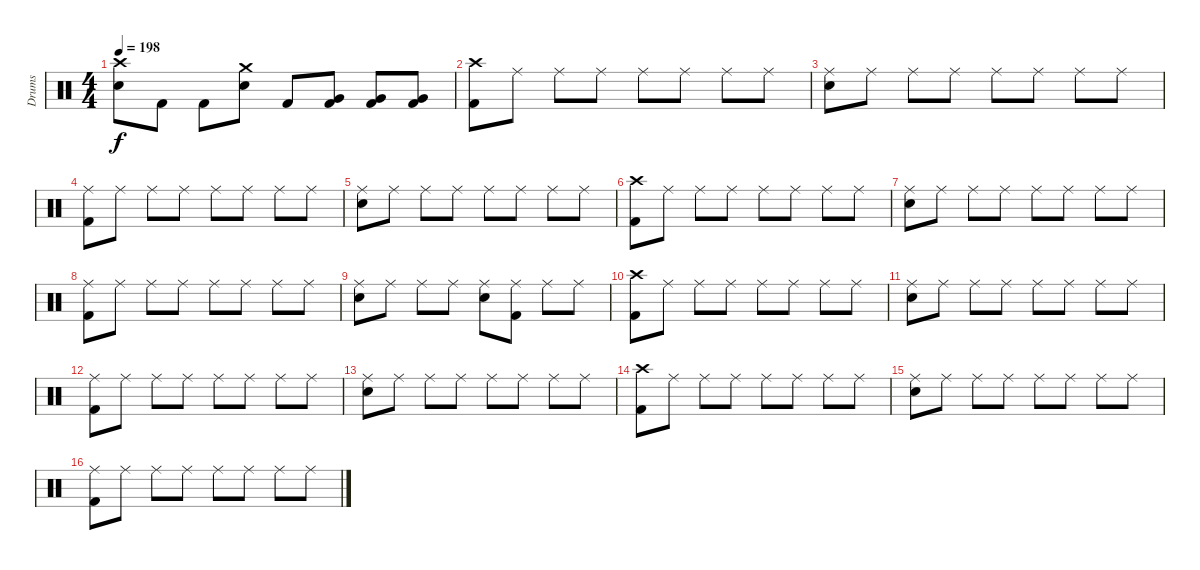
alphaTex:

\track ("Drums" "Drums") {instrument percussion}
\staff {score}
\articulation defaults
\ts (4 4)
\tempo 198
\clef neutral
\ks c
("Crash high (hit)" "Electric Snare (hit)").8{dy f} "Kick (hit) 2".8 "Kick (hit) 2".8 ("Crash medium (hit)" "Electric Snare (hit)").8 "Kick (hit) 2".8 ("Very Low Tom (hit)" "Kick (hit) 2").8 ("Very Low Tom (hit)" "Kick (hit) 2").8 ("Very Low Tom (hit)" "Kick (hit) 2").8 |
("Crash high (hit)" "Kick (hit) 2").8 "Ride (middle)".8 "Ride (middle)".8 "Ride (middle)".8 "Ride (middle)".8 "Ride (middle)".8 "Ride (middle)".8 "Ride (middle)".8 |
("Ride (middle)" "Electric Snare (hit)").8 "Ride (middle)".8 "Ride (middle)".8 "Ride (middle)".8 "Ride (middle)".8 "Ride (middle)".8 "Ride (middle)".8 "Ride (middle)".8 |
("Ride (middle)" "Kick (hit) 2").8 "Ride (middle)".8 "Ride (middle)".8 "Ride (middle)".8 "Ride (middle)".8 "Ride (middle)".8 "Ride (middle)".8 "Ride (middle)".8 |
("Ride (middle)" "Electric Snare (hit)").8 "Ride (middle)".8 "Ride (middle)".8 "Ride (middle)".8 "Ride (middle)".8 "Ride (middle)".8 "Ride (middle)".8 "Ride (middle)".8 |
("Crash high (hit)" "Kick (hit) 2").8 "Ride (middle)".8 "Ride (middle)".8 "Ride (middle)".8 "Ride (middle)".8 "Ride (middle)".8 "Ride (middle)".8 "Ride (middle)".8 |
("Ride (middle)" "Electric Snare (hit)").8 "Ride (middle)".8 "Ride (middle)".8 "Ride (middle)".8 "Ride (middle)".8 "Ride (middle)".8 "Ride (middle)".8 "Ride (middle)".8 |
("Ride (middle)" "Kick (hit) 2").8 "Ride (middle)".8 "Ride (middle)".8 "Ride (middle)".8 "Ride (middle)".8 "Ride (middle)".8 "Ride (middle)".8 "Ride (middle)".8 |
("Ride (middle)" "Electric Snare (hit)").8 "Ride (middle)".8 "Ride (middle)".8 "Ride (middle)".8 ("Ride (middle)" "Electric Snare (hit)").8 ("Ride (middle)" "Kick (hit) 2").8 "Ride (middle)".8 "Ride (middle)".8 |
("Crash high (hit)" "Kick (hit) 2").8 "Ride (middle)".8 "Ride (middle)".8 "Ride (middle)".8 "Ride (middle)".8 "Ride (middle)".8 "Ride (middle)".8 "Ride (middle)".8 |
("Ride (middle)" "Electric Snare (hit)").8 "Ride (middle)".8 "Ride (middle)".8 "Ride (middle)".8 "Ride (middle)".8 "Ride (middle)".8 "Ride (middle)".8 "Ride (middle)".8 |
("Ride (middle)" "Kick (hit) 2").8 "Ride (middle)".8 "Ride (middle)".8 "Ride (middle)".8 "Ride (middle)".8 "Ride (middle)".8 "Ride (middle)".8 "Ride (middle)".8 |
("Ride (middle)" "Electric Snare (hit)").8 "Ride (middle)".8 "Ride (middle)".8 "Ride (middle)".8 "Ride (middle)".8 "Ride (middle)".8 "Ride (middle)".8 "Ride (middle)".8 |
("Crash high (hit)" "Kick (hit) 2").8 "Ride (middle)".8 "Ride (middle)".8 "Ride (middle)".8 "Ride (middle)".8 "Ride (middle)".8 "Ride (middle)".8 "Ride (middle)".8 |
("Ride (middle)" "Electric Snare (hit)").8 "Ride (middle)".8 "Ride (middle)".8 "Ride (middle)".8 "Ride (middle)".8 "Ride (middle)".8 "Ride (middle)".8 "Ride (middle)".8 |
("Ride (middle)" "Kick (hit) 2").8 "Ride (middle)".8 "Ride (middle)".8 "Ride (middle)".8 "Ride (middle)".8 "Ride (middle)".8 "Ride (middle)".8 "Ride (middle)".8
